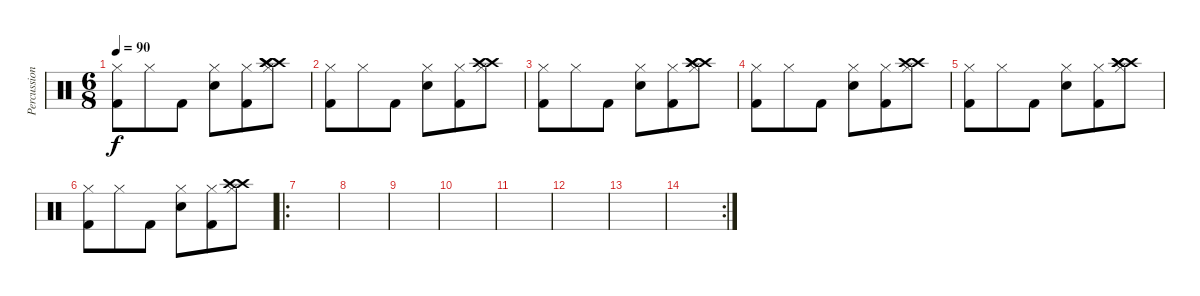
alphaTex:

\track ("Percussion" "Percussion") {instrument percussion}
\staff {score}
\articulation defaults
\ts (6 8)
\tempo 90
\clef neutral
\ks c
("Hi-Hat (closed)" "Kick (hit) 2").8{dy f} "Hi-Hat (closed)".8 "Kick (hit) 2".8 ("Hi-Hat (closed)" "Electric Snare (hit)").8 ("Hi-Hat (closed)" "Kick (hit) 2").8 ("Hi-Hat (closed)" "Crash high (hit)" "Crash high (hit)" "Crash high (hit)").8 |
("Hi-Hat (closed)" "Kick (hit) 2").8 "Hi-Hat (closed)".8 "Kick (hit) 2".8 ("Hi-Hat (closed)" "Electric Snare (hit)").8 ("Hi-Hat (closed)" "Kick (hit) 2").8 ("Hi-Hat (closed)" "Crash high (hit)" "Crash high (hit)").8 |
("Hi-Hat (closed)" "Kick (hit) 2").8 "Hi-Hat (closed)".8 "Kick (hit) 2".8 ("Hi-Hat (closed)" "Electric Snare (hit)").8 ("Hi-Hat (closed)" "Kick (hit) 2").8 ("Hi-Hat (closed)" "Crash high (hit)" "Crash high (hit)" "Crash high (hit)").8 |
("Hi-Hat (closed)" "Kick (hit) 2").8 "Hi-Hat (closed)".8 "Kick (hit) 2".8 ("Hi-Hat (closed)" "Electric Snare (hit)").8 ("Hi-Hat (closed)" "Kick (hit) 2").8 ("Hi-Hat (closed)" "Crash high (hit)" "Crash high (hit)").8 |
("Hi-Hat (closed)" "Kick (hit) 2").8 "Hi-Hat (closed)".8 "Kick (hit) 2".8 ("Hi-Hat (closed)" "Electric Snare (hit)").8 ("Hi-Hat (closed)" "Kick (hit) 2").8 ("Hi-Hat (closed)" "Crash high (hit)" "Crash high (hit)" "Crash high (hit)").8 |
("Hi-Hat (closed)" "Kick (hit) 2").8 "Hi-Hat (closed)".8 "Kick (hit) 2".8 ("Hi-Hat (closed)" "Electric Snare (hit)").8 ("Hi-Hat (closed)" "Kick (hit) 2").8 ("Hi-Hat (closed)" "Crash high (hit)" "Crash high (hit)").8 |
\ro
|
|
|
|
|
|
|
\rc 2
